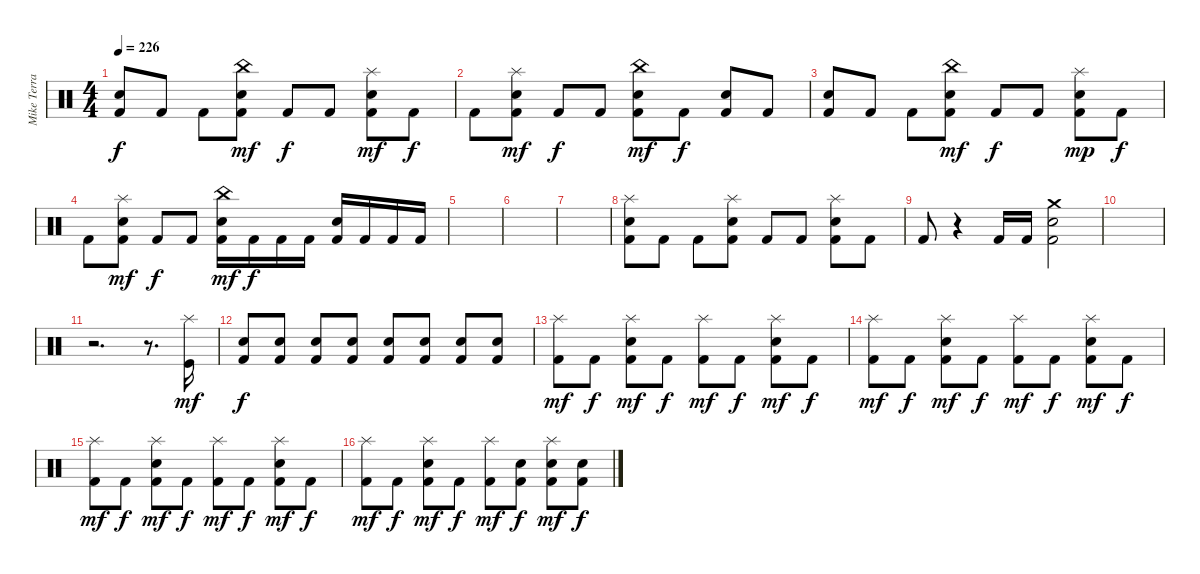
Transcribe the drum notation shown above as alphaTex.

\track ("Mike Terrana" "Mike Terra") {instrument percussion}
\staff {score}
\articulation defaults
\ts (4 4)
\tempo 226
\clef neutral
\ks c
("Snare (hit) 2" "Kick (hit) 2").8{dy f} "Kick (hit) 2".8 "Kick (hit) 2".8 ("China (hit)" "Snare (hit) 2" "Kick (hit) 2").8{dy mf} "Kick (hit) 2".8{dy f} "Kick (hit) 2".8 ("Splash (hit)" "Snare (hit) 2" "Kick (hit) 2").8{dy mf} "Kick (hit) 2".8{dy f} |
"Kick (hit) 2".8 ("Splash (hit)" "Snare (hit) 2" "Kick (hit) 2").8{dy mf} "Kick (hit) 2".8{dy f} "Kick (hit) 2".8 ("China (hit)" "Snare (hit) 2" "Kick (hit) 2").8{dy mf} "Kick (hit) 2".8{dy f} ("Snare (hit) 2" "Kick (hit) 2").8 "Kick (hit) 2".8 |
("Snare (hit) 2" "Kick (hit) 2").8 "Kick (hit) 2".8 "Kick (hit) 2".8 ("China (hit)" "Snare (hit) 2" "Kick (hit) 2").8{dy mf} "Kick (hit) 2".8{dy f} "Kick (hit) 2".8 ("Splash (hit)" "Snare (hit) 2" "Kick (hit) 2").8{dy mp} "Kick (hit) 2".8{dy f} |
"Kick (hit) 2".8 ("Splash (hit)" "Snare (hit) 2" "Kick (hit) 2").8{dy mf} "Kick (hit) 2".8{dy f} "Kick (hit) 2".8 ("China (hit)" "Snare (hit) 2" "Kick (hit) 2").16{dy mf} "Kick (hit) 2".16{dy f} "Kick (hit) 2".16 "Kick (hit) 2".16 ("Snare (hit) 2" "Kick (hit) 2").16 "Kick (hit) 2".16 "Kick (hit) 2".16 "Kick (hit) 2".16 |
|
|
|
("Splash (hit)" "Snare (hit) 2" "Kick (hit) 2").8 "Kick (hit) 2".8 "Kick (hit) 2".8 ("Splash (hit)" "Snare (hit) 2" "Kick (hit) 2").8 "Kick (hit) 2".8 "Kick (hit) 2".8 ("Splash (hit)" "Snare (hit) 2" "Kick (hit) 2").8 "Kick (hit) 2".8 |
"Kick (hit) 2".8 r.4 "Kick (hit) 2".16 "Kick (hit) 2".16 ("Crash medium (hit)" "Snare (hit) 2" "Kick (hit) 2").2 |
|
r.2{d} r.8{d} ("Splash (hit)" "Kick (hit)").16{dy mf} |
("Snare (hit) 2" "Kick (hit) 2").8{dy f} ("Snare (hit) 2" "Kick (hit) 2").8 ("Snare (hit) 2" "Kick (hit) 2").8 ("Snare (hit) 2" "Kick (hit) 2").8 ("Snare (hit) 2" "Kick (hit) 2").8 ("Snare (hit) 2" "Kick (hit) 2").8 ("Snare (hit) 2" "Kick (hit) 2").8 ("Snare (hit) 2" "Kick (hit) 2").8 |
("Splash (hit)" "Kick (hit) 2").8{dy mf} "Kick (hit) 2".8{dy f} ("Splash (hit)" "Snare (hit) 2" "Kick (hit) 2").8{dy mf} "Kick (hit) 2".8{dy f} ("Splash (hit)" "Kick (hit) 2").8{dy mf} "Kick (hit) 2".8{dy f} ("Splash (hit)" "Snare (hit) 2" "Kick (hit) 2").8{dy mf} "Kick (hit) 2".8{dy f} |
("Splash (hit)" "Kick (hit) 2").8{dy mf} "Kick (hit) 2".8{dy f} ("Splash (hit)" "Snare (hit) 2" "Kick (hit) 2").8{dy mf} "Kick (hit) 2".8{dy f} ("Splash (hit)" "Kick (hit) 2").8{dy mf} "Kick (hit) 2".8{dy f} ("Splash (hit)" "Snare (hit) 2" "Kick (hit) 2").8{dy mf} "Kick (hit) 2".8{dy f} |
("Splash (hit)" "Kick (hit) 2").8{dy mf} "Kick (hit) 2".8{dy f} ("Splash (hit)" "Snare (hit) 2" "Kick (hit) 2").8{dy mf} "Kick (hit) 2".8{dy f} ("Splash (hit)" "Kick (hit) 2").8{dy mf} "Kick (hit) 2".8{dy f} ("Splash (hit)" "Snare (hit) 2" "Kick (hit) 2").8{dy mf} "Kick (hit) 2".8{dy f} |
("Splash (hit)" "Kick (hit) 2").8{dy mf} "Kick (hit) 2".8{dy f} ("Splash (hit)" "Snare (hit) 2" "Kick (hit) 2").8{dy mf} "Kick (hit) 2".8{dy f} ("Splash (hit)" "Kick (hit) 2").8{dy mf} ("Snare (hit) 2" "Kick (hit) 2").8{dy f} ("Splash (hit)" "Snare (hit) 2" "Kick (hit) 2").8{dy mf} ("Snare (hit) 2" "Kick (hit) 2").8{dy f}
